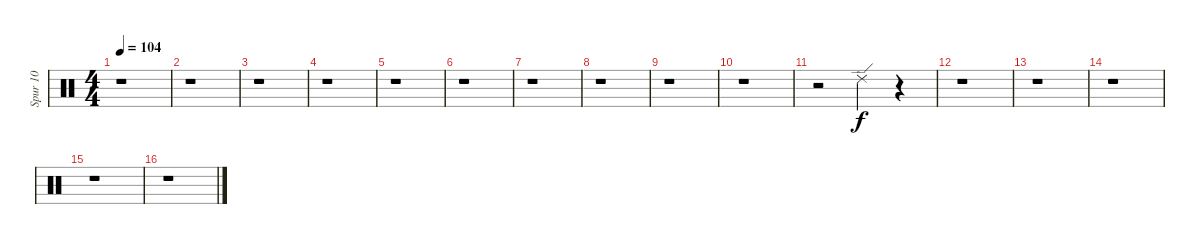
\track ("Spur 10" "Spur 10") {instrument percussion}
\staff {score}
\articulation defaults
\ts (4 4)
\tempo 104
\clef neutral
\ks c
r.1{dy p} |
r.1 |
r.1 |
r.1 |
r.1 |
r.1 |
r.1 |
r.1 |
r.1 |
r.1 |
r.2 "Ride (edge) 2".4{dy f} r.4 |
r.1 |
r.1 |
r.1 |
r.1 |
r.1
